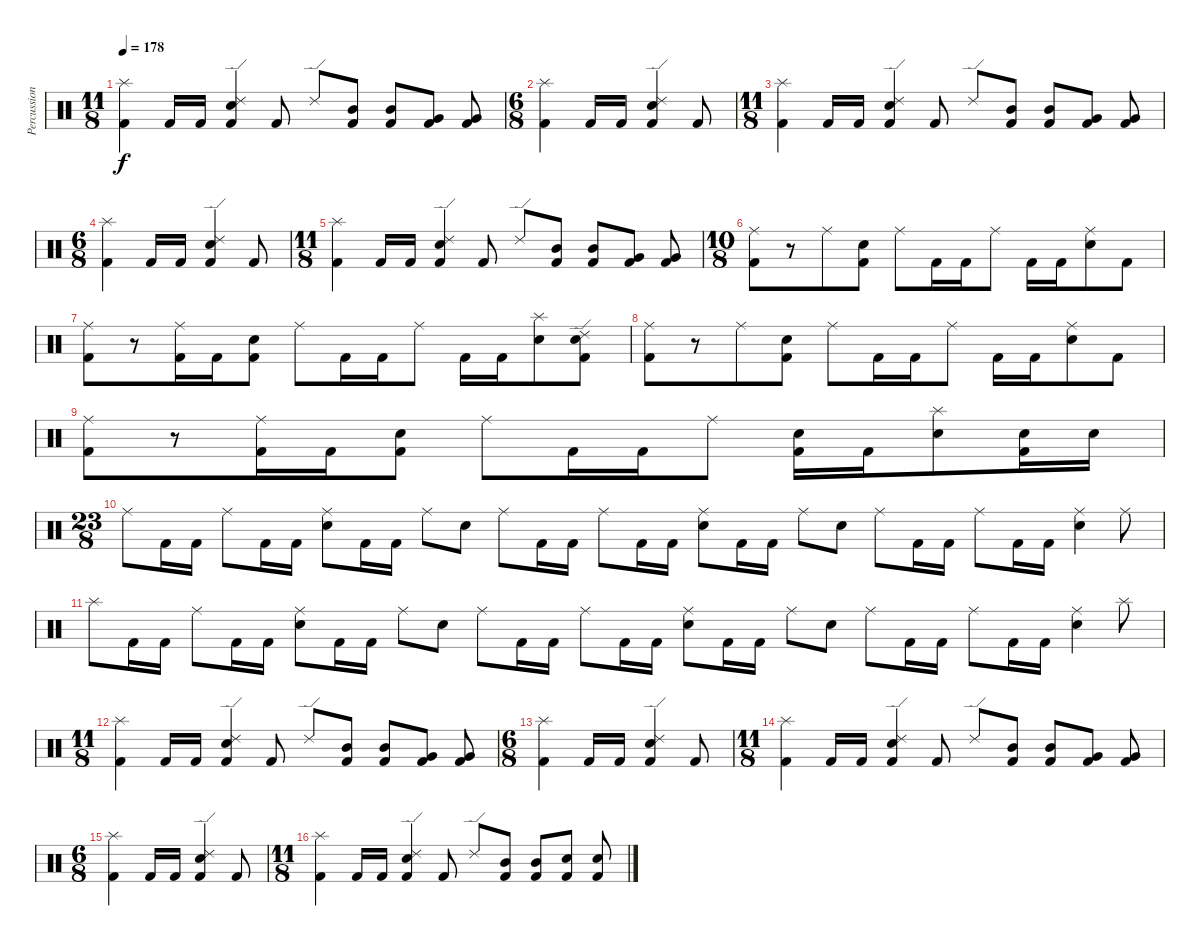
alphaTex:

\track ("Percussion" "Percussion") {instrument percussion}
\staff {score}
\articulation defaults
\ts (11 8)
\tempo 178
\clef neutral
\ks c
("Splash (hit)" "Kick (hit) 2").4{dy f} "Kick (hit) 2".16 "Kick (hit) 2".16 ("Ride (edge) 2" "Electric Snare (hit)" "Kick (hit) 2").4 "Kick (hit) 2".8 "Ride (edge) 2".8 ("Mid Tom (hit)" "Kick (hit) 2").8 ("Mid Tom (hit)" "Kick (hit) 2").8 ("Very Low Tom (hit)" "Kick (hit) 2").8 ("Very Low Tom (hit)" "Kick (hit) 2").8 |
\ts (6 8)
("Splash (hit)" "Kick (hit) 2").4 "Kick (hit) 2".16 "Kick (hit) 2".16 ("Ride (edge) 2" "Electric Snare (hit)" "Kick (hit) 2").4 "Kick (hit) 2".8 |
\ts (11 8)
("Splash (hit)" "Kick (hit) 2").4 "Kick (hit) 2".16 "Kick (hit) 2".16 ("Ride (edge) 2" "Electric Snare (hit)" "Kick (hit) 2").4 "Kick (hit) 2".8 "Ride (edge) 2".8 ("Mid Tom (hit)" "Kick (hit) 2").8 ("Mid Tom (hit)" "Kick (hit) 2").8 ("Very Low Tom (hit)" "Kick (hit) 2").8 ("Very Low Tom (hit)" "Kick (hit) 2").8 |
\ts (6 8)
("Splash (hit)" "Kick (hit) 2").4 "Kick (hit) 2".16 "Kick (hit) 2".16 ("Ride (edge) 2" "Electric Snare (hit)" "Kick (hit) 2").4 "Kick (hit) 2".8 |
\ts (11 8)
("Splash (hit)" "Kick (hit) 2").4 "Kick (hit) 2".16 "Kick (hit) 2".16 ("Ride (edge) 2" "Electric Snare (hit)" "Kick (hit) 2").4 "Kick (hit) 2".8 "Ride (edge) 2".8 ("Mid Tom (hit)" "Kick (hit) 2").8 ("Mid Tom (hit)" "Kick (hit) 2").8 ("Very Low Tom (hit)" "Kick (hit) 2").8 ("Very Low Tom (hit)" "Kick (hit) 2").8 |
\ts (10 8)
("Ride (middle)" "Kick (hit) 2").8 r.8 "Ride (middle)".8 ("Electric Snare (hit)" "Kick (hit) 2").8 "Ride (middle)".8 "Kick (hit) 2".16 "Kick (hit) 2".16 "Ride (middle)".8 "Kick (hit) 2".16 "Kick (hit) 2".16 ("Ride (middle)" "Electric Snare (hit)").8 "Kick (hit) 2".8 |
("Ride (middle)" "Kick (hit) 2").8 r.8 ("Ride (middle)" "Kick (hit) 2").16 "Kick (hit) 2".16 ("Electric Snare (hit)" "Kick (hit) 2").8 "Ride (middle)".8 "Kick (hit) 2".16 "Kick (hit) 2".16 "Ride (middle)".8 "Kick (hit) 2".16 "Kick (hit) 2".16 ("Splash (hit)" "Electric Snare (hit)").8 ("Ride (edge) 2" "Electric Snare (hit)" "Kick (hit) 2").8 |
("Ride (middle)" "Kick (hit) 2").8 r.8 "Ride (middle)".8 ("Electric Snare (hit)" "Kick (hit) 2").8 "Ride (middle)".8 "Kick (hit) 2".16 "Kick (hit) 2".16 "Ride (middle)".8 "Kick (hit) 2".16 "Kick (hit) 2".16 ("Ride (middle)" "Electric Snare (hit)").8 "Kick (hit) 2".8 |
("Ride (middle)" "Kick (hit) 2").8 r.8 ("Ride (middle)" "Kick (hit) 2").16 "Kick (hit) 2".16 ("Electric Snare (hit)" "Kick (hit) 2").8 "Ride (middle)".8 "Kick (hit) 2".16 "Kick (hit) 2".16 "Ride (middle)".8 ("Electric Snare (hit)" "Kick (hit) 2").16 "Kick (hit) 2".16 ("Splash (hit)" "Electric Snare (hit)").8 ("Electric Snare (hit)" "Kick (hit) 2").16 "Electric Snare (hit)".16 |
\ts (23 8)
"Ride (middle)".8 "Kick (hit) 2".16 "Kick (hit) 2".16 "Ride (middle)".8 "Kick (hit) 2".16 "Kick (hit) 2".16 ("Ride (middle)" "Electric Snare (hit)").8 "Kick (hit) 2".16 "Kick (hit) 2".16 "Ride (middle)".8 "Electric Snare (hit)".8 "Ride (middle)".8 "Kick (hit) 2".16 "Kick (hit) 2".16 "Ride (middle)".8 "Kick (hit) 2".16 "Kick (hit) 2".16 ("Ride (middle)" "Electric Snare (hit)").8 "Kick (hit) 2".16 "Kick (hit) 2".16 "Ride (middle)".8 "Electric Snare (hit)".8 "Ride (middle)".8 "Kick (hit) 2".16 "Kick (hit) 2".16 "Ride (middle)".8 "Kick (hit) 2".16 "Kick (hit) 2".16 ("Ride (middle)" "Electric Snare (hit)").4 "Ride (middle)".8 |
"Splash (hit)".8 "Kick (hit) 2".16 "Kick (hit) 2".16 "Ride (middle)".8 "Kick (hit) 2".16 "Kick (hit) 2".16 ("Ride (middle)" "Electric Snare (hit)").8 "Kick (hit) 2".16 "Kick (hit) 2".16 "Ride (middle)".8 "Electric Snare (hit)".8 "Ride (middle)".8 "Kick (hit) 2".16 "Kick (hit) 2".16 "Ride (middle)".8 "Kick (hit) 2".16 "Kick (hit) 2".16 ("Ride (middle)" "Electric Snare (hit)").8 "Kick (hit) 2".16 "Kick (hit) 2".16 "Ride (middle)".8 "Electric Snare (hit)".8 "Ride (middle)".8 "Kick (hit) 2".16 "Kick (hit) 2".16 "Ride (middle)".8 "Kick (hit) 2".16 "Kick (hit) 2".16 ("Ride (middle)" "Electric Snare (hit)").4 "Splash (hit)".8 |
\ts (11 8)
("Splash (hit)" "Kick (hit) 2").4 "Kick (hit) 2".16 "Kick (hit) 2".16 ("Ride (edge) 2" "Electric Snare (hit)" "Kick (hit) 2").4 "Kick (hit) 2".8 "Ride (edge) 2".8 ("Mid Tom (hit)" "Kick (hit) 2").8 ("Mid Tom (hit)" "Kick (hit) 2").8 ("Very Low Tom (hit)" "Kick (hit) 2").8 ("Very Low Tom (hit)" "Kick (hit) 2").8 |
\ts (6 8)
("Splash (hit)" "Kick (hit) 2").4 "Kick (hit) 2".16 "Kick (hit) 2".16 ("Ride (edge) 2" "Electric Snare (hit)" "Kick (hit) 2").4 "Kick (hit) 2".8 |
\ts (11 8)
("Splash (hit)" "Kick (hit) 2").4 "Kick (hit) 2".16 "Kick (hit) 2".16 ("Ride (edge) 2" "Electric Snare (hit)" "Kick (hit) 2").4 "Kick (hit) 2".8 "Ride (edge) 2".8 ("Mid Tom (hit)" "Kick (hit) 2").8 ("Mid Tom (hit)" "Kick (hit) 2").8 ("Very Low Tom (hit)" "Kick (hit) 2").8 ("Very Low Tom (hit)" "Kick (hit) 2").8 |
\ts (6 8)
("Splash (hit)" "Kick (hit) 2").4 "Kick (hit) 2".16 "Kick (hit) 2".16 ("Ride (edge) 2" "Electric Snare (hit)" "Kick (hit) 2").4 "Kick (hit) 2".8 |
\ts (11 8)
("Splash (hit)" "Kick (hit) 2").4 "Kick (hit) 2".16 "Kick (hit) 2".16 ("Ride (edge) 2" "Electric Snare (hit)" "Kick (hit) 2").4 "Kick (hit) 2".8 "Ride (edge) 2".8 ("Mid Tom (hit)" "Kick (hit) 2").8 ("Mid Tom (hit)" "Kick (hit) 2").8 ("Electric Snare (hit)" "Kick (hit) 2").8 ("Electric Snare (hit)" "Kick (hit) 2").8
